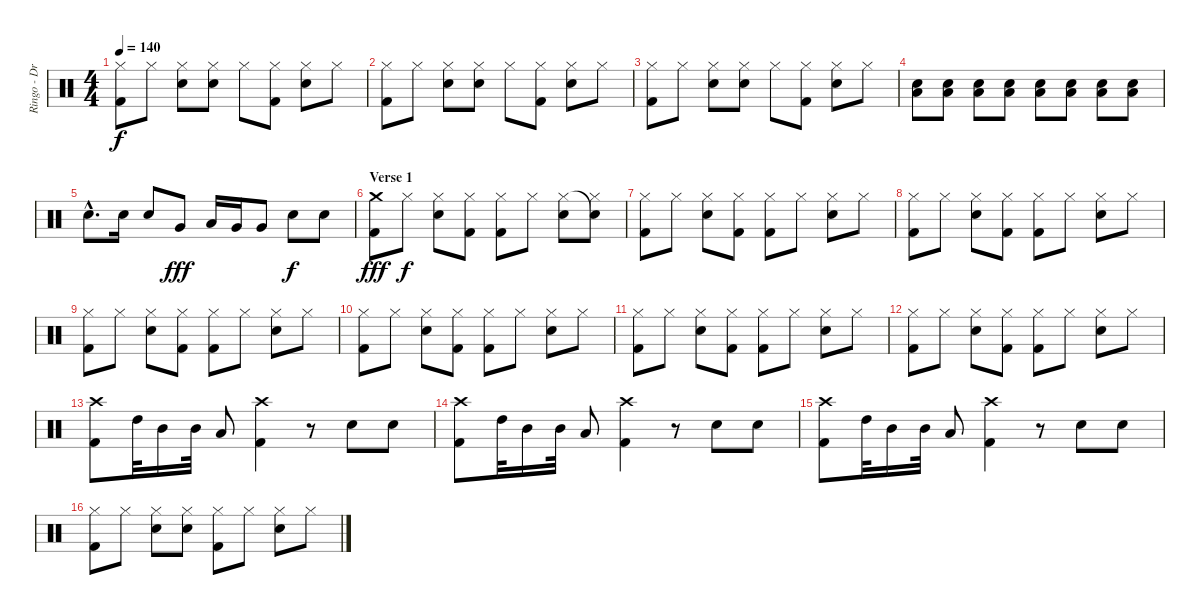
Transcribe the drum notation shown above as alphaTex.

\track ("Ringo - Drums" "Ringo - Dr") {instrument percussion}
\staff {score}
\articulation defaults
\ts (4 4)
\tempo 140
\clef neutral
\ks c
("Kick (hit) 2" "Hi-Hat (closed)").8{dy f} "Hi-Hat (closed)".8 ("Snare (hit) 2" "Hi-Hat (closed)").8 ("Snare (hit) 2" "Hi-Hat (closed)").8 "Hi-Hat (closed)".8 ("Kick (hit) 2" "Hi-Hat (closed)").8 ("Snare (hit) 2" "Hi-Hat (closed)").8 "Hi-Hat (closed)".8 |
("Kick (hit) 2" "Hi-Hat (closed)").8 "Hi-Hat (closed)".8 ("Snare (hit) 2" "Hi-Hat (closed)").8 ("Snare (hit) 2" "Hi-Hat (closed)").8 "Hi-Hat (closed)".8 ("Kick (hit) 2" "Hi-Hat (closed)").8 ("Snare (hit) 2" "Hi-Hat (closed)").8 "Hi-Hat (closed)".8 |
("Kick (hit) 2" "Hi-Hat (closed)").8 "Hi-Hat (closed)".8 ("Snare (hit) 2" "Hi-Hat (closed)").8 ("Snare (hit) 2" "Hi-Hat (closed)").8 "Hi-Hat (closed)".8 ("Kick (hit) 2" "Hi-Hat (closed)").8 ("Snare (hit) 2" "Hi-Hat (closed)").8 "Hi-Hat (closed)".8 |
("Snare (hit) 2" "Low Floor Tom (hit)").8 ("Snare (hit) 2" "Low Floor Tom (hit)").8 ("Snare (hit) 2" "Low Floor Tom (hit)").8 ("Snare (hit) 2" "Low Floor Tom (hit)").8 ("Snare (hit) 2" "Low Floor Tom (hit)").8 ("Snare (hit) 2" "Low Floor Tom (hit)").8 ("Snare (hit) 2" "Low Floor Tom (hit)").8 ("Snare (hit) 2" "Low Floor Tom (hit)").8 |
"Snare (hit) 2"{hac}.8{d} "Snare (hit) 2".16 "Snare (hit) 2".8 "Very Low Tom (hit)".8{dy fff} "Low Tom (hit)".16 "Very Low Tom (hit)".16 "Very Low Tom (hit)".8 "Snare (hit) 2".8{dy f} "Snare (hit) 2".8 |
\section ("" "Verse 1")
("Kick (hit) 2" "Crash medium (hit)").8{dy fff} "Hi-Hat (closed)".8{dy f} ("Snare (hit) 2" "Hi-Hat (closed)").8 ("Kick (hit) 2" "Hi-Hat (closed)").8 ("Kick (hit) 2" "Hi-Hat (closed)").8 "Hi-Hat (closed)".8 ("Snare (hit) 2" "Hi-Hat (closed)").8 ("Hi-Hat (closed)" "Snare (hit)"{t}).8 |
("Kick (hit) 2" "Hi-Hat (closed)").8 "Hi-Hat (closed)".8 ("Snare (hit) 2" "Hi-Hat (closed)").8 ("Kick (hit) 2" "Hi-Hat (closed)").8 ("Kick (hit) 2" "Hi-Hat (closed)").8 "Hi-Hat (closed)".8 ("Snare (hit) 2" "Hi-Hat (closed)").8 "Hi-Hat (closed)".8 |
("Kick (hit) 2" "Hi-Hat (closed)").8 "Hi-Hat (closed)".8 ("Snare (hit) 2" "Hi-Hat (closed)").8 ("Kick (hit) 2" "Hi-Hat (closed)").8 ("Kick (hit) 2" "Hi-Hat (closed)").8 "Hi-Hat (closed)".8 ("Snare (hit) 2" "Hi-Hat (closed)").8 "Hi-Hat (closed)".8 |
("Kick (hit) 2" "Hi-Hat (closed)").8 "Hi-Hat (closed)".8 ("Snare (hit) 2" "Hi-Hat (closed)").8 ("Kick (hit) 2" "Hi-Hat (closed)").8 ("Kick (hit) 2" "Hi-Hat (closed)").8 "Hi-Hat (closed)".8 ("Snare (hit) 2" "Hi-Hat (closed)").8 "Hi-Hat (closed)".8 |
("Kick (hit) 2" "Hi-Hat (closed)").8 "Hi-Hat (closed)".8 ("Snare (hit) 2" "Hi-Hat (closed)").8 ("Kick (hit) 2" "Hi-Hat (closed)").8 ("Kick (hit) 2" "Hi-Hat (closed)").8 "Hi-Hat (closed)".8 ("Snare (hit) 2" "Hi-Hat (closed)").8 "Hi-Hat (closed)".8 |
("Kick (hit) 2" "Hi-Hat (closed)").8 "Hi-Hat (closed)".8 ("Snare (hit) 2" "Hi-Hat (closed)").8 ("Kick (hit) 2" "Hi-Hat (closed)").8 ("Kick (hit) 2" "Hi-Hat (closed)").8 "Hi-Hat (closed)".8 ("Snare (hit) 2" "Hi-Hat (closed)").8 "Hi-Hat (closed)".8 |
("Kick (hit) 2" "Hi-Hat (closed)").8 "Hi-Hat (closed)".8 ("Snare (hit) 2" "Hi-Hat (closed)").8 ("Kick (hit) 2" "Hi-Hat (closed)").8 ("Kick (hit) 2" "Hi-Hat (closed)").8 "Hi-Hat (closed)".8 ("Snare (hit) 2" "Hi-Hat (closed)").8 "Hi-Hat (closed)".8 |
("Kick (hit) 2" "Crash high (hit)").8 "High Tom (hit)".32 "Mid Tom (hit)".16 "Mid Tom (hit)".32 "Low Tom (hit)".8 ("Kick (hit) 2" "Crash high (hit)").4 r.8 "Snare (hit) 2".8 "Snare (hit) 2".8 |
("Kick (hit) 2" "Crash high (hit)").8 "High Tom (hit)".32 "Mid Tom (hit)".16 "Mid Tom (hit)".32 "Low Tom (hit)".8 ("Kick (hit) 2" "Crash high (hit)").4 r.8 "Snare (hit) 2".8 "Snare (hit) 2".8 |
("Kick (hit) 2" "Crash high (hit)").8 "High Tom (hit)".32 "Mid Tom (hit)".16 "Mid Tom (hit)".32 "Low Tom (hit)".8 ("Kick (hit) 2" "Crash high (hit)").4 r.8 "Snare (hit) 2".8 "Snare (hit) 2".8 |
("Kick (hit) 2" "Hi-Hat (closed)").8 "Hi-Hat (closed)".8 ("Snare (hit) 2" "Hi-Hat (closed)").8 ("Snare (hit) 2" "Hi-Hat (closed)").8 ("Kick (hit) 2" "Hi-Hat (closed)").8 "Hi-Hat (closed)".8 ("Snare (hit) 2" "Hi-Hat (closed)").8 "Hi-Hat (closed)".8
